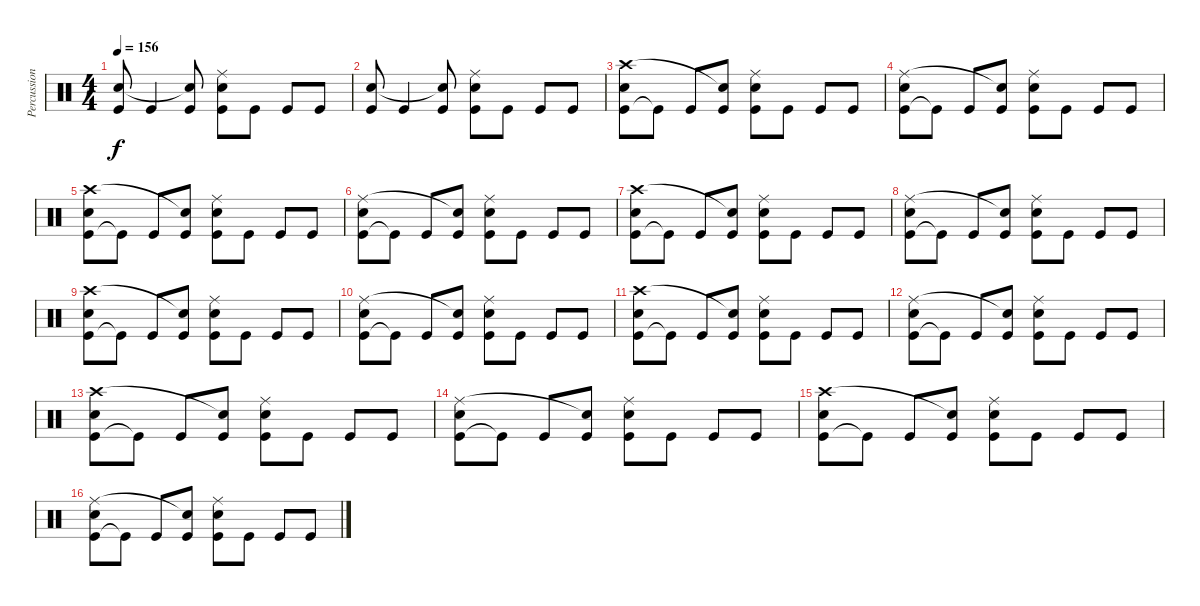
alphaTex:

\track ("Percussion" "Percussion") {instrument percussion}
\staff {score}
\articulation defaults
\ts (4 4)
\tempo 156
\clef neutral
\ks c
("Kick (hit)" "Electric Snare (hit)").8{dy f} "Kick (hit)".4 ("Kick (hit)" "Snare (hit)"{t}).8 ("Kick (hit)" "Ride (middle)" "Electric Snare (hit)").8 "Kick (hit)".8 "Kick (hit)".8 "Kick (hit)".8 |
("Kick (hit)" "Electric Snare (hit)").8 "Kick (hit)".4 ("Kick (hit)" "Snare (hit)"{t}).8 ("Kick (hit)" "Ride (middle)" "Electric Snare (hit)").8 "Kick (hit)".8 "Kick (hit)".8 "Kick (hit)".8 |
("Kick (hit)" "Crash high (hit)" "Electric Snare (hit)").8 "Kick (hit)"{t}.8 "Kick (hit)".8 ("Kick (hit)" "Snare (hit)"{t}).8 ("Kick (hit)" "Ride (middle)" "Electric Snare (hit)").8 "Kick (hit)".8 "Kick (hit)".8 "Kick (hit)".8 |
("Kick (hit)" "Ride (middle)" "Electric Snare (hit)").8 "Kick (hit)"{t}.8 "Kick (hit)".8 ("Kick (hit)" "Snare (hit)"{t}).8 ("Kick (hit)" "Ride (middle)" "Electric Snare (hit)").8 "Kick (hit)".8 "Kick (hit)".8 "Kick (hit)".8 |
("Kick (hit)" "Crash high (hit)" "Electric Snare (hit)").8 "Kick (hit)"{t}.8 "Kick (hit)".8 ("Kick (hit)" "Snare (hit)"{t}).8 ("Kick (hit)" "Ride (middle)" "Electric Snare (hit)").8 "Kick (hit)".8 "Kick (hit)".8 "Kick (hit)".8 |
("Kick (hit)" "Ride (middle)" "Electric Snare (hit)").8 "Kick (hit)"{t}.8 "Kick (hit)".8 ("Kick (hit)" "Snare (hit)"{t}).8 ("Kick (hit)" "Ride (middle)" "Electric Snare (hit)").8 "Kick (hit)".8 "Kick (hit)".8 "Kick (hit)".8 |
("Kick (hit)" "Crash high (hit)" "Electric Snare (hit)").8 "Kick (hit)"{t}.8 "Kick (hit)".8 ("Kick (hit)" "Snare (hit)"{t}).8 ("Kick (hit)" "Ride (middle)" "Electric Snare (hit)").8 "Kick (hit)".8 "Kick (hit)".8 "Kick (hit)".8 |
("Kick (hit)" "Ride (middle)" "Electric Snare (hit)").8 "Kick (hit)"{t}.8 "Kick (hit)".8 ("Kick (hit)" "Snare (hit)"{t}).8 ("Kick (hit)" "Ride (middle)" "Electric Snare (hit)").8 "Kick (hit)".8 "Kick (hit)".8 "Kick (hit)".8 |
("Kick (hit)" "Crash high (hit)" "Electric Snare (hit)").8 "Kick (hit)"{t}.8 "Kick (hit)".8 ("Kick (hit)" "Snare (hit)"{t}).8 ("Kick (hit)" "Ride (middle)" "Electric Snare (hit)").8 "Kick (hit)".8 "Kick (hit)".8 "Kick (hit)".8 |
("Kick (hit)" "Ride (middle)" "Electric Snare (hit)").8 "Kick (hit)"{t}.8 "Kick (hit)".8 ("Kick (hit)" "Snare (hit)"{t}).8 ("Kick (hit)" "Ride (middle)" "Electric Snare (hit)").8 "Kick (hit)".8 "Kick (hit)".8 "Kick (hit)".8 |
("Kick (hit)" "Crash high (hit)" "Electric Snare (hit)").8 "Kick (hit)"{t}.8 "Kick (hit)".8 ("Kick (hit)" "Snare (hit)"{t}).8 ("Kick (hit)" "Ride (middle)" "Electric Snare (hit)").8 "Kick (hit)".8 "Kick (hit)".8 "Kick (hit)".8 |
("Kick (hit)" "Ride (middle)" "Electric Snare (hit)").8 "Kick (hit)"{t}.8 "Kick (hit)".8 ("Kick (hit)" "Snare (hit)"{t}).8 ("Kick (hit)" "Ride (middle)" "Electric Snare (hit)").8 "Kick (hit)".8 "Kick (hit)".8 "Kick (hit)".8 |
("Kick (hit)" "Crash high (hit)" "Electric Snare (hit)").8 "Kick (hit)"{t}.8 "Kick (hit)".8 ("Kick (hit)" "Snare (hit)"{t}).8 ("Kick (hit)" "Ride (middle)" "Electric Snare (hit)").8 "Kick (hit)".8 "Kick (hit)".8 "Kick (hit)".8 |
("Kick (hit)" "Ride (middle)" "Electric Snare (hit)").8 "Kick (hit)"{t}.8 "Kick (hit)".8 ("Kick (hit)" "Snare (hit)"{t}).8 ("Kick (hit)" "Ride (middle)" "Electric Snare (hit)").8 "Kick (hit)".8 "Kick (hit)".8 "Kick (hit)".8 |
("Kick (hit)" "Crash high (hit)" "Electric Snare (hit)").8 "Kick (hit)"{t}.8 "Kick (hit)".8 ("Kick (hit)" "Snare (hit)"{t}).8 ("Kick (hit)" "Ride (middle)" "Electric Snare (hit)").8 "Kick (hit)".8 "Kick (hit)".8 "Kick (hit)".8 |
("Kick (hit)" "Ride (middle)" "Electric Snare (hit)").8 "Kick (hit)"{t}.8 "Kick (hit)".8 ("Kick (hit)" "Snare (hit)"{t}).8 ("Kick (hit)" "Ride (middle)" "Electric Snare (hit)").8 "Kick (hit)".8 "Kick (hit)".8 "Kick (hit)".8
